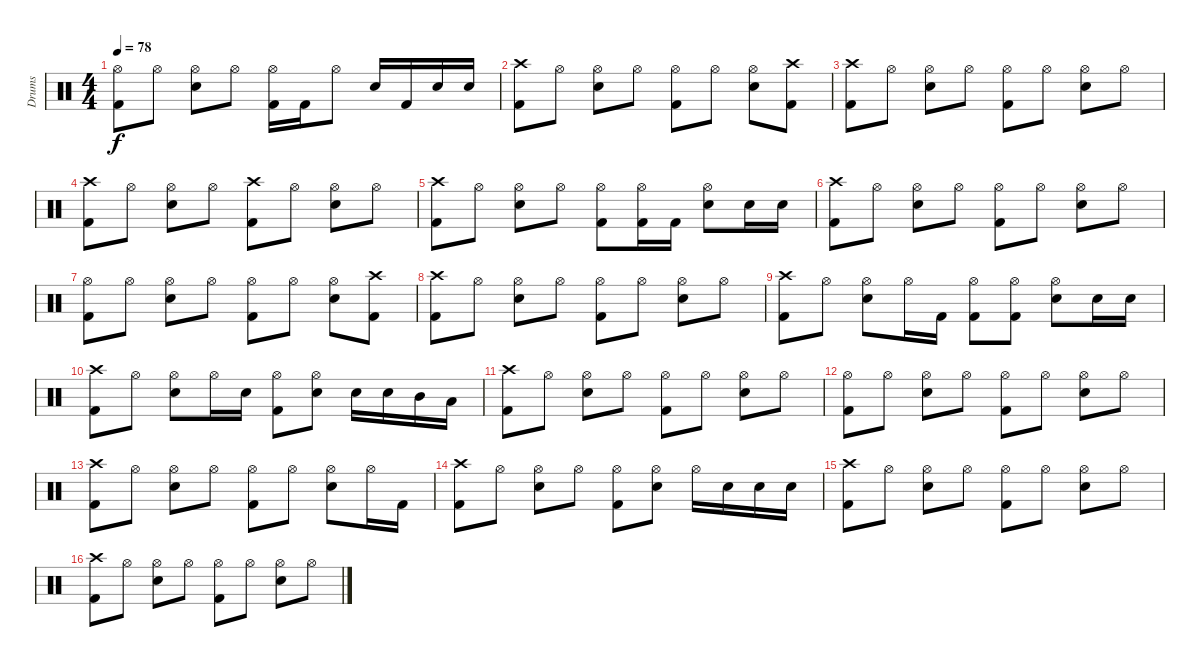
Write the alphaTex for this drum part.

\track ("Drums" "Drums") {instrument percussion}
\staff {score}
\articulation defaults
\ts (4 4)
\tempo 78
\clef neutral
\ks c
("Hi-Hat (open)" "Kick (hit) 2").8{dy f} "Hi-Hat (open)".8 ("Hi-Hat (open)" "Snare (hit) 2").8 "Hi-Hat (open)".8 ("Hi-Hat (open)" "Kick (hit) 2").16 "Kick (hit) 2".16 "Hi-Hat (open)".8 "Snare (hit) 2".16 "Kick (hit) 2".16 "Snare (hit) 2".16 "Snare (hit) 2".16 |
("Crash high (hit)" "Kick (hit) 2").8 "Hi-Hat (open)".8 ("Hi-Hat (open)" "Snare (hit) 2").8 "Hi-Hat (open)".8 ("Hi-Hat (open)" "Kick (hit) 2").8 "Hi-Hat (open)".8 ("Hi-Hat (open)" "Snare (hit) 2").8 ("Crash high (hit)" "Kick (hit) 2").8 |
("Crash high (hit)" "Kick (hit) 2").8 "Hi-Hat (open)".8 ("Hi-Hat (open)" "Snare (hit) 2").8 "Hi-Hat (open)".8 ("Hi-Hat (open)" "Kick (hit) 2").8 "Hi-Hat (open)".8 ("Hi-Hat (open)" "Snare (hit) 2").8 "Hi-Hat (open)".8 |
("Crash high (hit)" "Kick (hit) 2").8 "Hi-Hat (open)".8 ("Hi-Hat (open)" "Snare (hit) 2").8 "Hi-Hat (open)".8 ("Crash high (hit)" "Kick (hit) 2").8 "Hi-Hat (open)".8 ("Hi-Hat (open)" "Snare (hit) 2").8 "Hi-Hat (open)".8 |
("Crash high (hit)" "Kick (hit) 2").8 "Hi-Hat (open)".8 ("Hi-Hat (open)" "Snare (hit) 2").8 "Hi-Hat (open)".8 ("Hi-Hat (open)" "Kick (hit) 2").8 ("Hi-Hat (open)" "Kick (hit) 2").16 "Kick (hit) 2".16 ("Hi-Hat (open)" "Snare (hit) 2").8 "Snare (hit) 2".16 "Snare (hit) 2".16 |
("Crash high (hit)" "Kick (hit) 2").8 "Hi-Hat (open)".8 ("Hi-Hat (open)" "Snare (hit) 2").8 "Hi-Hat (open)".8 ("Hi-Hat (open)" "Kick (hit) 2").8 "Hi-Hat (open)".8 ("Hi-Hat (open)" "Snare (hit) 2").8 "Hi-Hat (open)".8 |
("Hi-Hat (open)" "Kick (hit) 2").8 "Hi-Hat (open)".8 ("Hi-Hat (open)" "Snare (hit) 2").8 "Hi-Hat (open)".8 ("Hi-Hat (open)" "Kick (hit) 2").8 "Hi-Hat (open)".8 ("Hi-Hat (open)" "Snare (hit) 2").8 ("Crash high (hit)" "Kick (hit) 2").8 |
("Crash high (hit)" "Kick (hit) 2").8 "Hi-Hat (open)".8 ("Hi-Hat (open)" "Snare (hit) 2").8 "Hi-Hat (open)".8 ("Hi-Hat (open)" "Kick (hit) 2").8 "Hi-Hat (open)".8 ("Hi-Hat (open)" "Snare (hit) 2").8 "Hi-Hat (open)".8 |
("Crash high (hit)" "Kick (hit) 2").8 "Hi-Hat (open)".8 ("Hi-Hat (open)" "Snare (hit) 2").8 "Hi-Hat (open)".16 "Kick (hit) 2".16 ("Hi-Hat (open)" "Kick (hit) 2").8 ("Hi-Hat (open)" "Kick (hit) 2").8 ("Hi-Hat (open)" "Snare (hit) 2").8 "Snare (hit) 2".16 "Snare (hit) 2".16 |
("Crash high (hit)" "Kick (hit) 2").8 "Hi-Hat (open)".8 ("Hi-Hat (open)" "Snare (hit) 2").8 "Hi-Hat (open)".16 "Snare (hit) 2".16 ("Hi-Hat (open)" "Kick (hit) 2").8 ("Hi-Hat (open)" "Snare (hit) 2").8 "Snare (hit) 2".16 "Snare (hit) 2".16 "Mid Tom (hit)".16 "Low Tom (hit)".16 |
("Crash high (hit)" "Kick (hit) 2").8 "Hi-Hat (open)".8 ("Hi-Hat (open)" "Snare (hit) 2").8 "Hi-Hat (open)".8 ("Hi-Hat (open)" "Kick (hit) 2").8 "Hi-Hat (open)".8 ("Hi-Hat (open)" "Snare (hit) 2").8 "Hi-Hat (open)".8 |
("Hi-Hat (open)" "Kick (hit) 2").8 "Hi-Hat (open)".8 ("Hi-Hat (open)" "Snare (hit) 2").8 "Hi-Hat (open)".8 ("Hi-Hat (open)" "Kick (hit) 2").8 "Hi-Hat (open)".8 ("Hi-Hat (open)" "Snare (hit) 2").8 "Hi-Hat (open)".8 |
("Crash high (hit)" "Kick (hit) 2").8 "Hi-Hat (open)".8 ("Hi-Hat (open)" "Snare (hit) 2").8 "Hi-Hat (open)".8 ("Hi-Hat (open)" "Kick (hit) 2").8 "Hi-Hat (open)".8 ("Hi-Hat (open)" "Snare (hit) 2").8 "Hi-Hat (open)".16 "Kick (hit) 2".16 |
("Crash high (hit)" "Kick (hit) 2").8 "Hi-Hat (open)".8 ("Hi-Hat (open)" "Snare (hit) 2").8 "Hi-Hat (open)".8 ("Hi-Hat (open)" "Kick (hit) 2").8 ("Hi-Hat (open)" "Snare (hit) 2").8 "Hi-Hat (open)".16 "Snare (hit) 2".16 "Snare (hit) 2".16 "Snare (hit) 2".16 |
("Crash high (hit)" "Kick (hit) 2").8 "Hi-Hat (open)".8 ("Hi-Hat (open)" "Snare (hit) 2").8 "Hi-Hat (open)".8 ("Hi-Hat (open)" "Kick (hit) 2").8 "Hi-Hat (open)".8 ("Hi-Hat (open)" "Snare (hit) 2").8 "Hi-Hat (open)".8 |
("Crash high (hit)" "Kick (hit) 2").8 "Hi-Hat (open)".8 ("Hi-Hat (open)" "Snare (hit) 2").8 "Hi-Hat (open)".8 ("Hi-Hat (open)" "Kick (hit) 2").8 "Hi-Hat (open)".8 ("Hi-Hat (open)" "Snare (hit) 2").8 "Hi-Hat (open)".8
